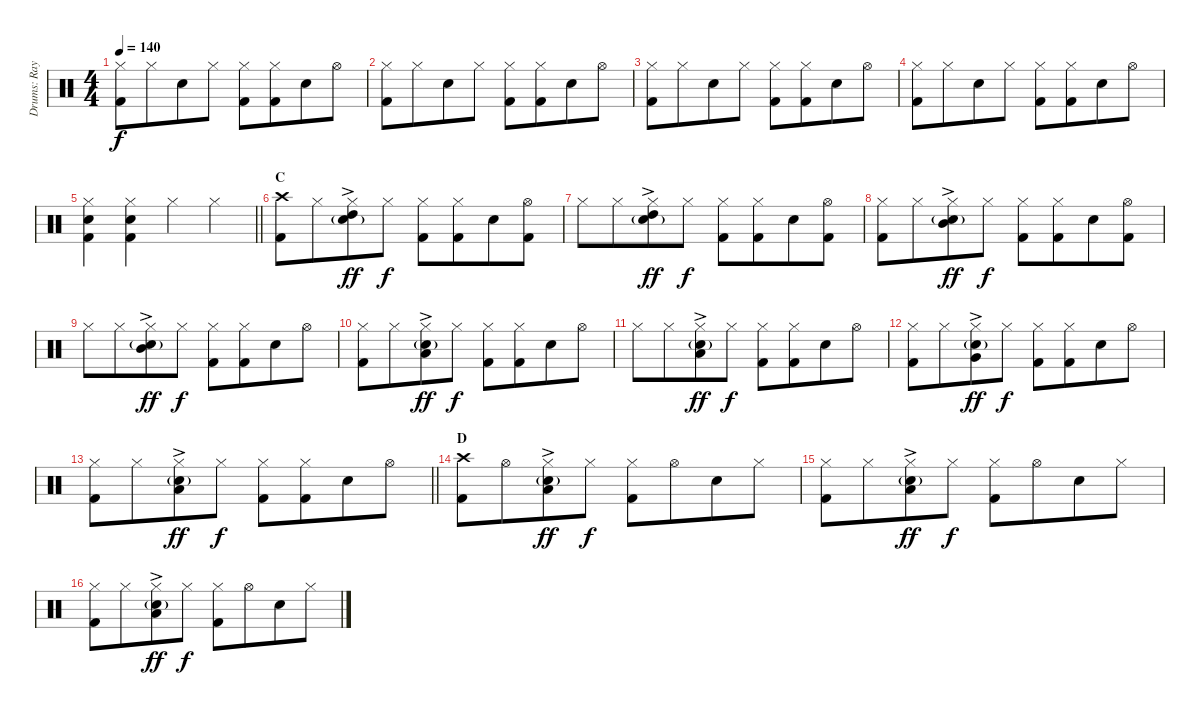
\track ("Drums: Ray Cooper" "Drums: Ray") {instrument percussion}
\staff {score}
\articulation defaults
\ts (4 4)
\tempo 140
\clef neutral
\ks c
("Hi-Hat (closed)" "Kick (hit) 2").8{dy f} "Hi-Hat (closed)".8{beam merge} "Electric Snare (hit)".8 "Hi-Hat (closed)".8 ("Hi-Hat (closed)" "Kick (hit) 2").8 ("Hi-Hat (closed)" "Kick (hit) 2").8{beam merge} "Electric Snare (hit)".8 "Hi-Hat (open)".8 |
("Hi-Hat (closed)" "Kick (hit) 2").8 "Hi-Hat (closed)".8{beam merge} "Electric Snare (hit)".8 "Hi-Hat (closed)".8 ("Hi-Hat (closed)" "Kick (hit) 2").8 ("Hi-Hat (closed)" "Kick (hit) 2").8{beam merge} "Electric Snare (hit)".8 "Hi-Hat (open)".8 |
("Hi-Hat (closed)" "Kick (hit) 2").8 "Hi-Hat (closed)".8{beam merge} "Electric Snare (hit)".8 "Hi-Hat (closed)".8 ("Hi-Hat (closed)" "Kick (hit) 2").8 ("Hi-Hat (closed)" "Kick (hit) 2").8{beam merge} "Electric Snare (hit)".8 "Hi-Hat (open)".8 |
("Hi-Hat (closed)" "Kick (hit) 2").8 "Hi-Hat (closed)".8{beam merge} "Electric Snare (hit)".8 "Hi-Hat (closed)".8 ("Hi-Hat (closed)" "Kick (hit) 2").8 ("Hi-Hat (closed)" "Kick (hit) 2").8{beam merge} "Electric Snare (hit)".8 "Hi-Hat (open)".8 |
\barLineRight lightlight
("Hi-Hat (closed)" "Electric Snare (hit)" "Kick (hit) 2").4 ("Hi-Hat (closed)" "Electric Snare (hit)" "Kick (hit) 2").4 "Hi-Hat (closed)".4 "Hi-Hat (closed)".4 |
\section ("" "C")
("Crash high (hit)" "Kick (hit) 2").8 "Hi-Hat (closed)".8{beam merge} ("Hi-Hat (closed)" "Electric Snare (hit)"{g} "High Tom (hit)"{ac}).8{dy ff} "Hi-Hat (closed)".8{dy f} ("Hi-Hat (closed)" "Kick (hit) 2").8 ("Hi-Hat (closed)" "Kick (hit) 2").8{beam merge} "Snare (hit) 2".8 ("Hi-Hat (open)" "Kick (hit) 2").8 |
"Hi-Hat (closed)".8 "Hi-Hat (closed)".8{beam merge} ("Hi-Hat (closed)" "Electric Snare (hit)"{g} "High Tom (hit)"{ac}).8{dy ff} "Hi-Hat (closed)".8{dy f} ("Hi-Hat (closed)" "Kick (hit) 2").8 ("Hi-Hat (closed)" "Kick (hit) 2").8{beam merge} "Snare (hit) 2".8 ("Hi-Hat (open)" "Kick (hit) 2").8 |
("Hi-Hat (closed)" "Kick (hit) 2").8 "Hi-Hat (closed)".8{beam merge} ("Hi-Hat (closed)" "Electric Snare (hit)"{g} "Mid Tom (hit)"{ac}).8{dy ff} "Hi-Hat (closed)".8{dy f} ("Hi-Hat (closed)" "Kick (hit) 2").8 ("Hi-Hat (closed)" "Kick (hit) 2").8{beam merge} "Snare (hit) 2".8 ("Hi-Hat (open)" "Kick (hit) 2").8 |
"Hi-Hat (closed)".8 "Hi-Hat (closed)".8{beam merge} ("Hi-Hat (closed)" "Electric Snare (hit)"{g} "Mid Tom (hit)"{ac}).8{dy ff} "Hi-Hat (closed)".8{dy f} ("Hi-Hat (closed)" "Kick (hit) 2").8 ("Hi-Hat (closed)" "Kick (hit) 2").8{beam merge} "Electric Snare (hit)".8 "Hi-Hat (open)".8 |
("Hi-Hat (closed)" "Kick (hit) 2").8 "Hi-Hat (closed)".8{beam merge} ("Hi-Hat (closed)" "Electric Snare (hit)"{g} "Low Tom (hit)"{ac}).8{dy ff} "Hi-Hat (closed)".8{dy f} ("Hi-Hat (closed)" "Kick (hit) 2").8 ("Hi-Hat (closed)" "Kick (hit) 2").8{beam merge} "Electric Snare (hit)".8 "Hi-Hat (open)".8 |
"Hi-Hat (closed)".8 "Hi-Hat (closed)".8{beam merge} ("Hi-Hat (closed)" "Electric Snare (hit)"{g} "Low Tom (hit)"{ac}).8{dy ff} "Hi-Hat (closed)".8{dy f} ("Hi-Hat (closed)" "Kick (hit) 2").8 ("Hi-Hat (closed)" "Kick (hit) 2").8{beam merge} "Electric Snare (hit)".8 "Hi-Hat (open)".8 |
("Hi-Hat (closed)" "Kick (hit) 2").8 "Hi-Hat (closed)".8{beam merge} ("Hi-Hat (closed)" "Electric Snare (hit)"{g} "Very Low Tom (hit)"{ac}).8{dy ff} "Hi-Hat (closed)".8{dy f} ("Hi-Hat (closed)" "Kick (hit) 2").8 ("Hi-Hat (closed)" "Kick (hit) 2").8{beam merge} "Electric Snare (hit)".8 "Hi-Hat (open)".8 |
\barLineRight lightlight
("Hi-Hat (closed)" "Kick (hit) 2").8 "Hi-Hat (closed)".8{beam merge} ("Hi-Hat (closed)" "Electric Snare (hit)"{g} "Low Floor Tom (hit)"{ac}).8{dy ff} "Hi-Hat (closed)".8{dy f} ("Hi-Hat (closed)" "Kick (hit) 2").8 ("Hi-Hat (closed)" "Kick (hit) 2").8{beam merge} "Electric Snare (hit)".8 "Hi-Hat (open)".8 |
\section ("" "D")
("Crash high (hit)" "Kick (hit) 2").8 "Hi-Hat (open)".8{beam merge} ("Hi-Hat (closed)" "Electric Snare (hit)"{g} "Low Floor Tom (hit)"{ac}).8{dy ff} "Hi-Hat (closed)".8{dy f} ("Hi-Hat (closed)" "Kick (hit) 2").8 "Hi-Hat (open)".8{beam merge} "Snare (hit) 2".8 "Hi-Hat (closed)".8 |
("Hi-Hat (closed)" "Kick (hit) 2").8 "Hi-Hat (closed)".8{beam merge} ("Hi-Hat (closed)" "Electric Snare (hit)"{g} "Low Floor Tom (hit)"{ac}).8{dy ff} "Hi-Hat (closed)".8{dy f} ("Hi-Hat (closed)" "Kick (hit) 2").8 "Hi-Hat (open)".8{beam merge} "Snare (hit) 2".8 "Hi-Hat (closed)".8 |
("Hi-Hat (closed)" "Kick (hit) 2").8 "Hi-Hat (closed)".8{beam merge} ("Hi-Hat (closed)" "Electric Snare (hit)"{g} "Low Floor Tom (hit)"{ac}).8{dy ff} "Hi-Hat (closed)".8{dy f} ("Hi-Hat (closed)" "Kick (hit) 2").8 "Hi-Hat (open)".8{beam merge} "Snare (hit) 2".8 "Hi-Hat (closed)".8
